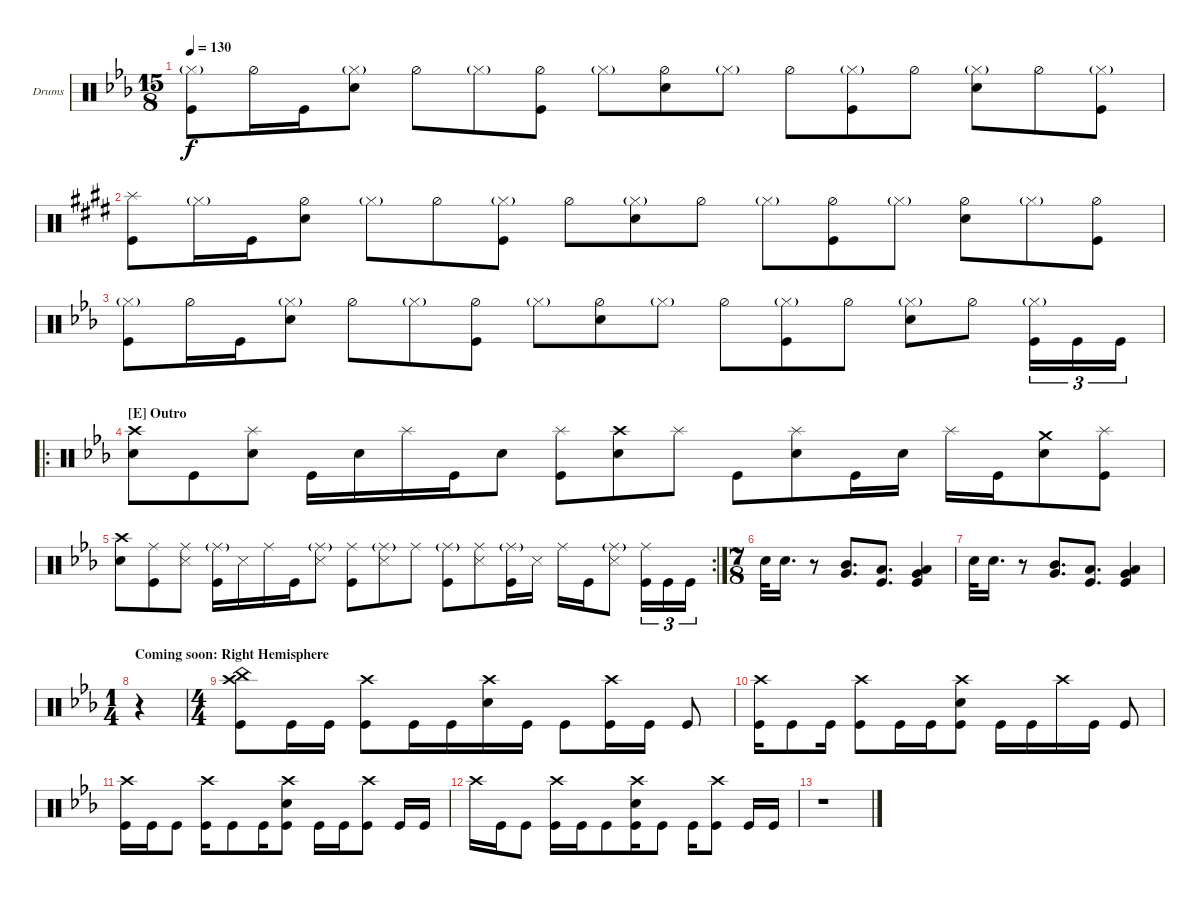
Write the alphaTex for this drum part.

\bracketExtendMode groupsimilarinstruments
\firstSystemTrackNameOrientation horizontal
\otherSystemsTrackNameOrientation horizontal
\track ("Drumkit" "Drums") {multiBarRest instrument percussion}
\staff {score}
\articulation defaults
\ts (15 8)
\tempo 130
\clef neutral
\ks eb
("Hi-Hat (closed)"{g} "Kick (hit)").8{dy f} "Hi-Hat (half)".16 "Kick (hit)".16 ("Hi-Hat (closed)"{g} "Snare (hit) 2").8 "Hi-Hat (half)".8 "Hi-Hat (closed)"{g}.8 ("Hi-Hat (half)" "Kick (hit)").8 "Hi-Hat (closed)"{g}.8 ("Hi-Hat (half)" "Snare (hit) 2").8 "Hi-Hat (closed)"{g}.8 "Hi-Hat (half)".8 ("Hi-Hat (closed)"{g} "Kick (hit)").8 "Hi-Hat (half)".8 ("Hi-Hat (closed)"{g} "Snare (hit) 2").8 "Hi-Hat (half)".8 ("Hi-Hat (closed)"{g} "Kick (hit)").8 |
\ks e
("Kick (hit)" "Splash (hit)").8 "Hi-Hat (closed)"{g}.16 "Kick (hit)".16 ("Hi-Hat (half)" "Snare (hit) 2").8 "Hi-Hat (closed)"{g}.8 "Hi-Hat (half)".8 ("Hi-Hat (closed)"{g} "Kick (hit)").8 "Hi-Hat (half)".8 ("Hi-Hat (closed)"{g} "Snare (hit) 2").8 "Hi-Hat (half)".8 "Hi-Hat (closed)"{g}.8 ("Hi-Hat (half)" "Kick (hit)").8 "Hi-Hat (closed)"{g}.8 ("Hi-Hat (half)" "Snare (hit) 2").8 "Hi-Hat (closed)"{g}.8 ("Hi-Hat (half)" "Kick (hit)").8 |
\ks eb
("Hi-Hat (closed)"{g} "Kick (hit)").8 "Hi-Hat (half)".16 "Kick (hit)".16 ("Hi-Hat (closed)"{g} "Snare (hit) 2").8 "Hi-Hat (half)".8 "Hi-Hat (closed)"{g}.8 ("Hi-Hat (half)" "Kick (hit)").8 "Hi-Hat (closed)"{g}.8 ("Hi-Hat (half)" "Snare (hit) 2").8 "Hi-Hat (closed)"{g}.8 "Hi-Hat (half)".8 ("Hi-Hat (closed)"{g} "Kick (hit)").8 "Hi-Hat (half)".8 ("Hi-Hat (closed)"{g} "Snare (hit) 2").8 "Hi-Hat (half)".8 ("Hi-Hat (closed)"{g} "Kick (hit)").16{tu (3 2)} "Kick (hit)".16{tu (3 2)} "Kick (hit)".16{tu (3 2)} |
\ro
\section ("E" "Outro")
("Snare (hit) 2" "Crash high (hit)").8 "Kick (hit)".8 ("Snare (hit) 2" "Splash (hit)").8 "Kick (hit)".16 "Snare (hit) 2".16 "Splash (hit)".16 "Kick (hit)".16 "Snare (hit) 2".8 ("Kick (hit)" "Splash (hit)").8 ("Snare (hit) 2" "Crash high (hit)").8 "Splash (hit)".8 "Kick (hit)".8 ("Snare (hit) 2" "Splash (hit)").8 "Kick (hit)".16 "Snare (hit) 2".16 "Splash (hit)".16 "Kick (hit)".16 ("Snare (hit) 2" "Crash medium (hit)").8 ("Kick (hit)" "Splash (hit)").8 |
\rc 2
("Snare (hit) 2" "Crash high (hit)").8 ("Kick (hit)" "Ride (middle)").8 ("Snare (side stick) 3" "Ride (middle)").8 ("Ride (middle)"{g} "Kick (hit)").16 "Snare (side stick) 3".16 "Ride (middle)".16 "Kick (hit)".16 ("Ride (middle)"{g} "Snare (side stick) 3").8 ("Ride (middle)" "Kick (hit)").8 ("Ride (middle)"{g} "Snare (side stick) 3").8 "Ride (middle)".8 ("Ride (middle)"{g} "Kick (hit)").8 ("Ride (middle)" "Snare (side stick) 3").8 ("Ride (middle)"{g} "Kick (hit)").16 "Snare (side stick) 3".16 "Ride (middle)".16 "Kick (hit)".16 ("Ride (middle)"{g} "Snare (side stick) 3").8 ("Ride (middle)" "Kick (hit)").16{tu (3 2)} "Kick (hit)".16{tu (3 2)} "Kick (hit)".16{tu (3 2)} |
\ts (7 8)
\beaming (8 2 3 2)
"Snare (hit) 2".32 "Snare (hit) 2".16{d} r.8 ("Very Low Tom (hit)" "Mid Tom (hit)").8{d} ("Kick (hit)" "Low Tom (hit)").8{d} ("Kick (hit)" "Very Low Tom (hit)" "Low Tom (hit)").4 |
"Snare (hit) 2".32 "Snare (hit) 2".16{d} r.8 ("Very Low Tom (hit)" "Mid Tom (hit)").8{d} ("Kick (hit)" "Low Tom (hit)").8{d} ("Kick (hit)" "Very Low Tom (hit)" "Low Tom (hit)").4 |
\ts (1 4)
\section ("" "Coming soon: Right Hemisphere")
r.4 |
\ts (4 4)
("Crash high (hit)" "Kick (hit)" "China (hit)").8 "Kick (hit)".16 "Kick (hit)".16 ("Kick (hit)" "Crash high (hit)").8 "Kick (hit)".16 "Kick (hit)".16 ("Snare (hit) 2" "Crash high (hit)").16 "Kick (hit)".16 "Kick (hit)".8 ("Kick (hit)" "Crash high (hit)").16 "Kick (hit)".16 "Kick (hit)".8 |
("Crash high (hit)" "Kick (hit)").16 "Kick (hit)".8 "Kick (hit)".16 ("Kick (hit)" "Crash high (hit)").8 "Kick (hit)".16 "Kick (hit)".16 ("Kick (hit)" "Crash high (hit)" "Snare (hit) 2").8 "Kick (hit)".16 "Kick (hit)".16 "Crash high (hit)".16 "Kick (hit)".16 "Kick (hit)".8 |
("Kick (hit)" "Crash high (hit)").16 "Kick (hit)".16 "Kick (hit)".8 ("Kick (hit)" "Crash high (hit)").16 "Kick (hit)".8 "Kick (hit)".16 ("Kick (hit)" "Crash high (hit)" "Snare (hit) 2").8 "Kick (hit)".16 "Kick (hit)".16 ("Kick (hit)" "Crash high (hit)").8 "Kick (hit)".16 "Kick (hit)".16 |
"Crash high (hit)".16 "Kick (hit)".16 "Kick (hit)".8 ("Kick (hit)" "Crash high (hit)").16 "Kick (hit)".16 "Kick (hit)".8 ("Kick (hit)" "Crash high (hit)" "Snare (hit) 2").16 "Kick (hit)".8 "Kick (hit)".16 ("Kick (hit)" "Crash high (hit)").8 "Kick (hit)".16 "Kick (hit)".16 |
r.1
